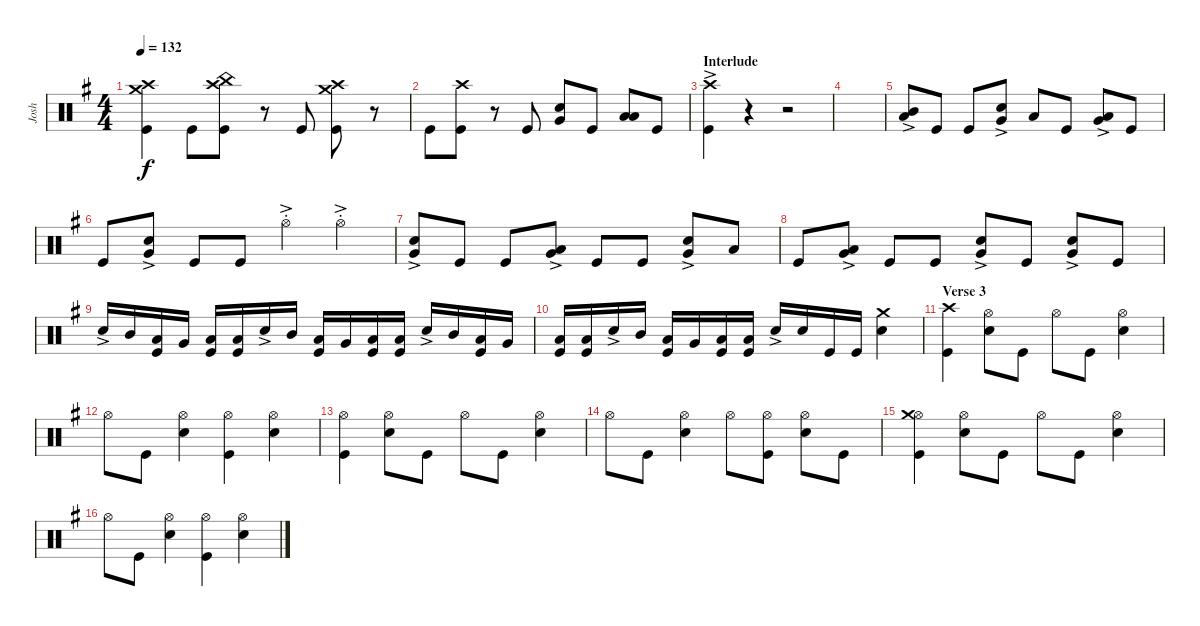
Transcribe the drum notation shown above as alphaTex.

\track ("Josh" "Josh") {instrument percussion}
\staff {score}
\articulation defaults
\ts (4 4)
\tempo 132
\clef neutral
\ks g
("Kick (hit)" "Crash medium (hit)" "Crash high (hit)").4{dy f} "Kick (hit)".8 ("Kick (hit)" "China (hit)" "Crash high (hit)").8 r.8 "Kick (hit)".8 ("Kick (hit)" "Crash medium (hit)" "Crash high (hit)").8 r.8 |
"Kick (hit)".8 ("Kick (hit)" "Crash high (hit)").8 r.8 "Kick (hit)".8 ("Snare (hit) 2" "Very Low Tom (hit)").8 "Kick (hit)".8 ("Low Floor Tom (hit)" "Low Tom (hit)").8 "Kick (hit)".8 |
\section ("" "Interlude")
("Kick (hit)" "Crash high (hit)"{ac}).4 r.4 r.2 |
|
("Low Tom (hit)"{ac} "Mid Tom (hit)"{ac}).8 "Kick (hit)".8 "Kick (hit)".8 ("Snare (hit) 2"{ac} "Very Low Tom (hit)"{ac}).8 "Low Floor Tom (hit)".8 "Kick (hit)".8 ("Very Low Tom (hit)"{ac} "Low Floor Tom (hit)"{ac}).8 "Kick (hit)".8 |
"Kick (hit)".8 ("Snare (hit) 2"{ac} "Very Low Tom (hit)"{ac}).8 "Kick (hit)".8 "Kick (hit)".8 "Hi-Hat (open)"{ac st}.4 "Hi-Hat (open)"{ac st}.4 |
("Snare (hit) 2"{ac} "Very Low Tom (hit)"{ac}).8 "Kick (hit)".8 "Kick (hit)".8 ("Low Floor Tom (hit)"{ac} "Very Low Tom (hit)"{ac}).8 "Kick (hit)".8 "Kick (hit)".8 ("Snare (hit) 2"{ac} "Very Low Tom (hit)"{ac}).8 "Low Floor Tom (hit)".8 |
"Kick (hit)".8 ("Very Low Tom (hit)"{ac} "Low Floor Tom (hit)"{ac}).8 "Kick (hit)".8 "Kick (hit)".8 ("Snare (hit) 2"{ac} "Very Low Tom (hit)"{ac}).8 "Kick (hit)".8 ("Snare (hit) 2"{ac} "Very Low Tom (hit)"{ac}).8 "Kick (hit)".8 |
"Snare (hit) 2"{ac}.16 "Mid Tom (hit)".16 ("Low Tom (hit)" "Kick (hit)").16 "Very Low Tom (hit)".16 ("Low Floor Tom (hit)" "Kick (hit)").16 ("Low Floor Tom (hit)" "Kick (hit)").16 "Snare (hit) 2"{ac}.16 "Mid Tom (hit)".16 ("Low Tom (hit)" "Kick (hit)").16 "Very Low Tom (hit)".16 ("Low Floor Tom (hit)" "Kick (hit)").16 ("Low Floor Tom (hit)" "Kick (hit)").16 "Snare (hit) 2"{ac}.16 "Mid Tom (hit)".16 ("Low Tom (hit)" "Kick (hit)").16 "Very Low Tom (hit)".16 |
("Low Floor Tom (hit)" "Kick (hit)").16 ("Low Floor Tom (hit)" "Kick (hit)").16 "Snare (hit) 2"{ac}.16 "Mid Tom (hit)".16 ("Low Tom (hit)" "Kick (hit)").16 "Very Low Tom (hit)".16 ("Low Floor Tom (hit)" "Kick (hit)").16 ("Low Floor Tom (hit)" "Kick (hit)").16 "Snare (hit) 2"{ac}.16 "Snare (hit) 2".16 "Kick (hit)".16 "Kick (hit)".16 ("Snare (hit) 2" "Crash medium (hit)").4 |
\section ("" "Verse 3")
("Kick (hit)" "Crash high (hit)").4 ("Snare (hit) 2" "Hi-Hat (open)").8 "Kick (hit)".8 "Hi-Hat (open)".8 "Kick (hit)".8 ("Hi-Hat (open)" "Snare (hit) 2").4 |
"Hi-Hat (open)".8 "Kick (hit)".8 ("Snare (hit) 2" "Hi-Hat (open)").4 ("Kick (hit)" "Hi-Hat (open)").4 ("Snare (hit) 2" "Hi-Hat (open)").4 |
("Kick (hit)" "Hi-Hat (open)").4 ("Snare (hit) 2" "Hi-Hat (open)").8 "Kick (hit)".8 "Hi-Hat (open)".8 "Kick (hit)".8 ("Hi-Hat (open)" "Snare (hit) 2").4 |
"Hi-Hat (open)".8 "Kick (hit)".8 ("Snare (hit) 2" "Hi-Hat (open)").4 "Hi-Hat (open)".8 ("Kick (hit)" "Hi-Hat (open)").8 ("Snare (hit) 2" "Hi-Hat (open)").8 "Kick (hit)".8 |
("Kick (hit)" "Hi-Hat (open)" "Crash medium (hit)").4 ("Snare (hit) 2" "Hi-Hat (open)").8 "Kick (hit)".8 "Hi-Hat (open)".8 "Kick (hit)".8 ("Hi-Hat (open)" "Snare (hit) 2").4 |
"Hi-Hat (open)".8 "Kick (hit)".8 ("Snare (hit) 2" "Hi-Hat (open)").4 ("Kick (hit)" "Hi-Hat (open)").4 ("Snare (hit) 2" "Hi-Hat (open)").4
